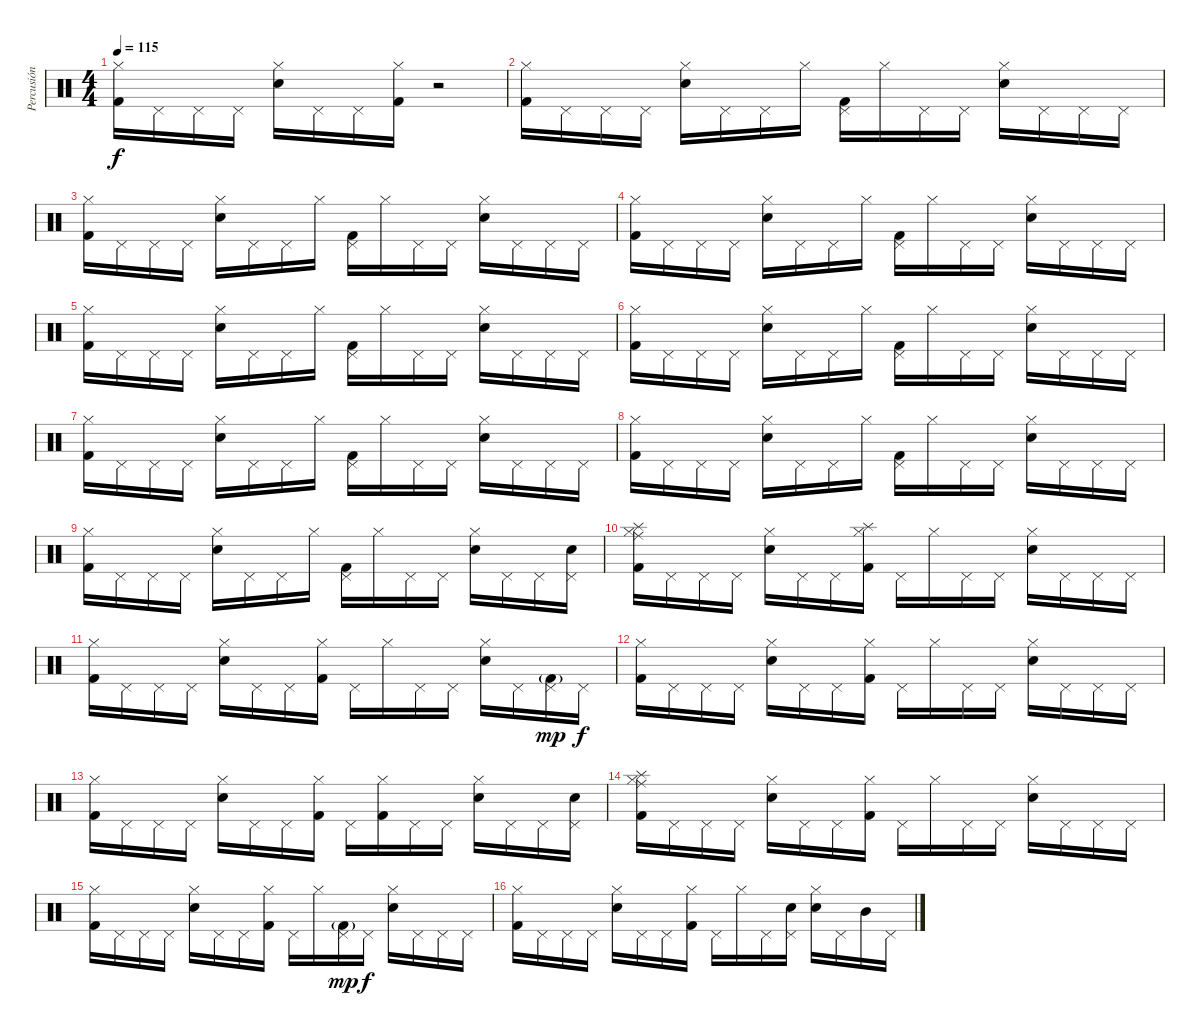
\track ("Percusión" "Percusión") {instrument percussion}
\staff {score}
\articulation defaults
\ts (4 4)
\tempo 115
\clef neutral
\ks c
("Hi-Hat (closed)" "Kick (hit) 2").16{dy f} "Pedal Hi-Hat (hit)".16 "Pedal Hi-Hat (hit)".16 "Pedal Hi-Hat (hit)".16 ("Hi-Hat (closed)" "Snare (hit) 2").16 "Pedal Hi-Hat (hit)".16 "Pedal Hi-Hat (hit)".16 ("Hi-Hat (closed)" "Kick (hit) 2").16 r.2 |
("Hi-Hat (closed)" "Kick (hit) 2").16 "Pedal Hi-Hat (hit)".16 "Pedal Hi-Hat (hit)".16 "Pedal Hi-Hat (hit)".16 ("Hi-Hat (closed)" "Snare (hit) 2").16 "Pedal Hi-Hat (hit)".16 "Pedal Hi-Hat (hit)".16 "Hi-Hat (closed)".16 ("Pedal Hi-Hat (hit)" "Kick (hit) 2").16 "Hi-Hat (closed)".16 "Pedal Hi-Hat (hit)".16 "Pedal Hi-Hat (hit)".16 ("Hi-Hat (closed)" "Snare (hit) 2").16 "Pedal Hi-Hat (hit)".16 "Pedal Hi-Hat (hit)".16 "Pedal Hi-Hat (hit)".16 |
("Hi-Hat (closed)" "Kick (hit) 2").16 "Pedal Hi-Hat (hit)".16 "Pedal Hi-Hat (hit)".16 "Pedal Hi-Hat (hit)".16 ("Hi-Hat (closed)" "Snare (hit) 2").16 "Pedal Hi-Hat (hit)".16 "Pedal Hi-Hat (hit)".16 "Hi-Hat (closed)".16 ("Pedal Hi-Hat (hit)" "Kick (hit) 2").16 "Hi-Hat (closed)".16 "Pedal Hi-Hat (hit)".16 "Pedal Hi-Hat (hit)".16 ("Hi-Hat (closed)" "Snare (hit) 2").16 "Pedal Hi-Hat (hit)".16 "Pedal Hi-Hat (hit)".16 "Pedal Hi-Hat (hit)".16 |
("Hi-Hat (closed)" "Kick (hit) 2").16 "Pedal Hi-Hat (hit)".16 "Pedal Hi-Hat (hit)".16 "Pedal Hi-Hat (hit)".16 ("Hi-Hat (closed)" "Snare (hit) 2").16 "Pedal Hi-Hat (hit)".16 "Pedal Hi-Hat (hit)".16 "Hi-Hat (closed)".16 ("Pedal Hi-Hat (hit)" "Kick (hit) 2").16 "Hi-Hat (closed)".16 "Pedal Hi-Hat (hit)".16 "Pedal Hi-Hat (hit)".16 ("Hi-Hat (closed)" "Snare (hit) 2").16 "Pedal Hi-Hat (hit)".16 "Pedal Hi-Hat (hit)".16 "Pedal Hi-Hat (hit)".16 |
("Hi-Hat (closed)" "Kick (hit) 2").16 "Pedal Hi-Hat (hit)".16 "Pedal Hi-Hat (hit)".16 "Pedal Hi-Hat (hit)".16 ("Hi-Hat (closed)" "Snare (hit) 2").16 "Pedal Hi-Hat (hit)".16 "Pedal Hi-Hat (hit)".16 "Hi-Hat (closed)".16 ("Pedal Hi-Hat (hit)" "Kick (hit) 2").16 "Hi-Hat (closed)".16 "Pedal Hi-Hat (hit)".16 "Pedal Hi-Hat (hit)".16 ("Hi-Hat (closed)" "Snare (hit) 2").16 "Pedal Hi-Hat (hit)".16 "Pedal Hi-Hat (hit)".16 "Pedal Hi-Hat (hit)".16 |
("Hi-Hat (closed)" "Kick (hit) 2").16 "Pedal Hi-Hat (hit)".16 "Pedal Hi-Hat (hit)".16 "Pedal Hi-Hat (hit)".16 ("Hi-Hat (closed)" "Snare (hit) 2").16 "Pedal Hi-Hat (hit)".16 "Pedal Hi-Hat (hit)".16 "Hi-Hat (closed)".16 ("Pedal Hi-Hat (hit)" "Kick (hit) 2").16 "Hi-Hat (closed)".16 "Pedal Hi-Hat (hit)".16 "Pedal Hi-Hat (hit)".16 ("Hi-Hat (closed)" "Snare (hit) 2").16 "Pedal Hi-Hat (hit)".16 "Pedal Hi-Hat (hit)".16 "Pedal Hi-Hat (hit)".16 |
("Hi-Hat (closed)" "Kick (hit) 2").16 "Pedal Hi-Hat (hit)".16 "Pedal Hi-Hat (hit)".16 "Pedal Hi-Hat (hit)".16 ("Hi-Hat (closed)" "Snare (hit) 2").16 "Pedal Hi-Hat (hit)".16 "Pedal Hi-Hat (hit)".16 "Hi-Hat (closed)".16 ("Pedal Hi-Hat (hit)" "Kick (hit) 2").16 "Hi-Hat (closed)".16 "Pedal Hi-Hat (hit)".16 "Pedal Hi-Hat (hit)".16 ("Hi-Hat (closed)" "Snare (hit) 2").16 "Pedal Hi-Hat (hit)".16 "Pedal Hi-Hat (hit)".16 "Pedal Hi-Hat (hit)".16 |
("Hi-Hat (closed)" "Kick (hit) 2").16 "Pedal Hi-Hat (hit)".16 "Pedal Hi-Hat (hit)".16 "Pedal Hi-Hat (hit)".16 ("Hi-Hat (closed)" "Snare (hit) 2").16 "Pedal Hi-Hat (hit)".16 "Pedal Hi-Hat (hit)".16 "Hi-Hat (closed)".16 ("Pedal Hi-Hat (hit)" "Kick (hit) 2").16 "Hi-Hat (closed)".16 "Pedal Hi-Hat (hit)".16 "Pedal Hi-Hat (hit)".16 ("Hi-Hat (closed)" "Snare (hit) 2").16 "Pedal Hi-Hat (hit)".16 "Pedal Hi-Hat (hit)".16 "Pedal Hi-Hat (hit)".16 |
("Hi-Hat (closed)" "Kick (hit) 2").16 "Pedal Hi-Hat (hit)".16 "Pedal Hi-Hat (hit)".16 "Pedal Hi-Hat (hit)".16 ("Hi-Hat (closed)" "Snare (hit) 2").16 "Pedal Hi-Hat (hit)".16 "Pedal Hi-Hat (hit)".16 "Hi-Hat (closed)".16 ("Pedal Hi-Hat (hit)" "Kick (hit) 2").16 "Hi-Hat (closed)".16 "Pedal Hi-Hat (hit)".16 "Pedal Hi-Hat (hit)".16 ("Hi-Hat (closed)" "Snare (hit) 2").16 "Pedal Hi-Hat (hit)".16 "Pedal Hi-Hat (hit)".16 ("Pedal Hi-Hat (hit)" "Snare (hit) 2").16 |
("Hi-Hat (closed)" "Kick (hit) 2" "Ride (middle)" "Splash (hit)").16 "Pedal Hi-Hat (hit)".16 "Pedal Hi-Hat (hit)".16 "Pedal Hi-Hat (hit)".16 ("Hi-Hat (closed)" "Snare (hit) 2").16 "Pedal Hi-Hat (hit)".16 "Pedal Hi-Hat (hit)".16 ("Hi-Hat (closed)" "Kick (hit) 2" "Splash (hit)").16 "Pedal Hi-Hat (hit)".16 "Hi-Hat (closed)".16 "Pedal Hi-Hat (hit)".16 "Pedal Hi-Hat (hit)".16 ("Hi-Hat (closed)" "Snare (hit) 2").16 "Pedal Hi-Hat (hit)".16 "Pedal Hi-Hat (hit)".16 "Pedal Hi-Hat (hit)".16 |
("Hi-Hat (closed)" "Kick (hit) 2").16 "Pedal Hi-Hat (hit)".16 "Pedal Hi-Hat (hit)".16 "Pedal Hi-Hat (hit)".16 ("Hi-Hat (closed)" "Snare (hit) 2").16 "Pedal Hi-Hat (hit)".16 "Pedal Hi-Hat (hit)".16 ("Hi-Hat (closed)" "Kick (hit) 2").16 "Pedal Hi-Hat (hit)".16 "Hi-Hat (closed)".16 "Pedal Hi-Hat (hit)".16 "Pedal Hi-Hat (hit)".16 ("Hi-Hat (closed)" "Snare (hit) 2").16 "Pedal Hi-Hat (hit)".16 ("Pedal Hi-Hat (hit)" "Kick (hit) 2"{g}).16{dy mp} "Pedal Hi-Hat (hit)".16{dy f} |
("Hi-Hat (closed)" "Kick (hit) 2").16 "Pedal Hi-Hat (hit)".16 "Pedal Hi-Hat (hit)".16 "Pedal Hi-Hat (hit)".16 ("Hi-Hat (closed)" "Snare (hit) 2").16 "Pedal Hi-Hat (hit)".16 "Pedal Hi-Hat (hit)".16 ("Hi-Hat (closed)" "Kick (hit) 2").16 "Pedal Hi-Hat (hit)".16 "Hi-Hat (closed)".16 "Pedal Hi-Hat (hit)".16 "Pedal Hi-Hat (hit)".16 ("Hi-Hat (closed)" "Snare (hit) 2").16 "Pedal Hi-Hat (hit)".16 "Pedal Hi-Hat (hit)".16 "Pedal Hi-Hat (hit)".16 |
("Hi-Hat (closed)" "Kick (hit) 2").16 "Pedal Hi-Hat (hit)".16 "Pedal Hi-Hat (hit)".16 "Pedal Hi-Hat (hit)".16 ("Hi-Hat (closed)" "Snare (hit) 2").16 "Pedal Hi-Hat (hit)".16 "Pedal Hi-Hat (hit)".16 ("Hi-Hat (closed)" "Kick (hit) 2").16 "Pedal Hi-Hat (hit)".16 ("Hi-Hat (closed)" "Kick (hit) 2").16 "Pedal Hi-Hat (hit)".16 "Pedal Hi-Hat (hit)".16 ("Hi-Hat (closed)" "Snare (hit) 2").16 "Pedal Hi-Hat (hit)".16 "Pedal Hi-Hat (hit)".16 ("Pedal Hi-Hat (hit)" "Snare (hit) 2").16 |
("Hi-Hat (closed)" "Kick (hit) 2" "Ride (middle)" "Splash (hit)").16 "Pedal Hi-Hat (hit)".16 "Pedal Hi-Hat (hit)".16 "Pedal Hi-Hat (hit)".16 ("Hi-Hat (closed)" "Snare (hit) 2").16 "Pedal Hi-Hat (hit)".16 "Pedal Hi-Hat (hit)".16 ("Hi-Hat (closed)" "Kick (hit) 2").16 "Pedal Hi-Hat (hit)".16 "Hi-Hat (closed)".16 "Pedal Hi-Hat (hit)".16 "Pedal Hi-Hat (hit)".16 ("Hi-Hat (closed)" "Snare (hit) 2").16 "Pedal Hi-Hat (hit)".16 "Pedal Hi-Hat (hit)".16 "Pedal Hi-Hat (hit)".16 |
("Hi-Hat (closed)" "Kick (hit) 2").16 "Pedal Hi-Hat (hit)".16 "Pedal Hi-Hat (hit)".16 "Pedal Hi-Hat (hit)".16 ("Hi-Hat (closed)" "Snare (hit) 2").16 "Pedal Hi-Hat (hit)".16 "Pedal Hi-Hat (hit)".16 ("Hi-Hat (closed)" "Kick (hit) 2").16 "Pedal Hi-Hat (hit)".16 "Hi-Hat (closed)".16 ("Pedal Hi-Hat (hit)" "Kick (hit) 2"{g}).16{dy mp} "Pedal Hi-Hat (hit)".16{dy f} ("Hi-Hat (closed)" "Snare (hit) 2").16 "Pedal Hi-Hat (hit)".16 "Pedal Hi-Hat (hit)".16 "Pedal Hi-Hat (hit)".16 |
("Hi-Hat (closed)" "Kick (hit) 2").16 "Pedal Hi-Hat (hit)".16 "Pedal Hi-Hat (hit)".16 "Pedal Hi-Hat (hit)".16 ("Hi-Hat (closed)" "Snare (hit) 2").16 "Pedal Hi-Hat (hit)".16 "Pedal Hi-Hat (hit)".16 ("Hi-Hat (closed)" "Kick (hit) 2").16 "Pedal Hi-Hat (hit)".16 "Hi-Hat (closed)".16 "Pedal Hi-Hat (hit)".16 ("Pedal Hi-Hat (hit)" "Snare (hit) 2").16 ("Hi-Hat (closed)" "Snare (hit) 2").16 "Pedal Hi-Hat (hit)".16 "Mid Tom (hit)".16 "Pedal Hi-Hat (hit)".16
